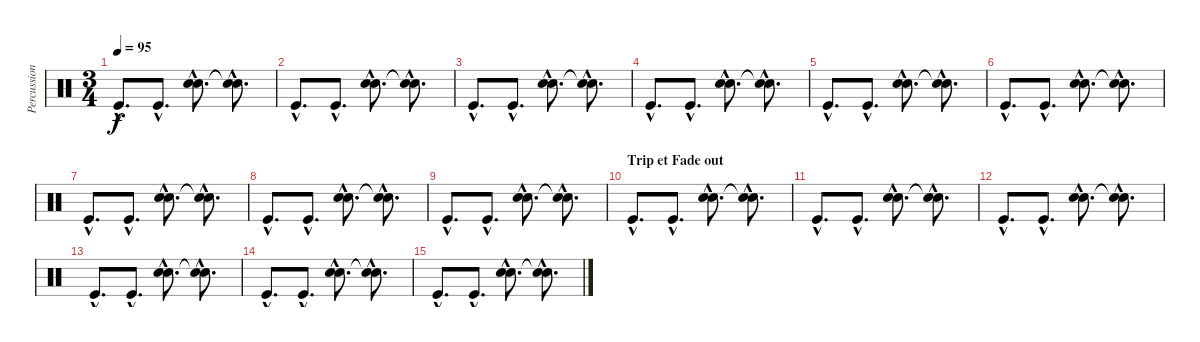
\track ("Percussions " "Percussion") {instrument percussion}
\staff {score}
\articulation defaults
\ts (3 4)
\tempo 95
\clef neutral
\ks c "Kick (hit)"{hac}.8{d dy f volume 14} "Kick (hit)"{hac}.8{d}
("Electric Snare (hit)"{hac} "Hand Clap (hit)"{hac}).8{d} ("Snare (hit)"{hac t} "Snare (hit)"{hac t}).8{d} |
"Kick (hit)"{hac}.8{d volume 16} "Kick (hit)"{hac}.8{d} ("Electric Snare (hit)"{hac} "Hand Clap (hit)"{hac}).8{d} ("Snare (hit)"{hac t} "Snare (hit)"{hac t}).8{d} |
"Kick (hit)"{hac}.8{d volume 14} "Kick (hit)"{hac}.8{d} ("Electric Snare (hit)"{hac} "Hand Clap (hit)"{hac}).8{d} ("Snare (hit)"{hac t} "Snare (hit)"{hac t}).8{d} |
"Kick (hit)"{hac}.8{d volume 16} "Kick (hit)"{hac}.8{d} ("Electric Snare (hit)"{hac} "Hand Clap (hit)"{hac}).8{d} ("Snare (hit)"{hac t} "Snare (hit)"{hac t}).8{d} |
"Kick (hit)"{hac}.8{d volume 14} "Kick (hit)"{hac}.8{d} ("Electric Snare (hit)"{hac} "Hand Clap (hit)"{hac}).8{d} ("Snare (hit)"{hac t} "Snare (hit)"{hac t}).8{d} |
"Kick (hit)"{hac}.8{d volume 16} "Kick (hit)"{hac}.8{d} ("Electric Snare (hit)"{hac} "Hand Clap (hit)"{hac}).8{d} ("Snare (hit)"{hac t} "Snare (hit)"{hac t}).8{d} |
"Kick (hit)"{hac}.8{d volume 14} "Kick (hit)"{hac}.8{d} ("Electric Snare (hit)"{hac} "Hand Clap (hit)"{hac}).8{d} ("Snare (hit)"{hac t} "Snare (hit)"{hac t}).8{d} |
"Kick (hit)"{hac}.8{d volume 16} "Kick (hit)"{hac}.8{d} ("Electric Snare (hit)"{hac} "Hand Clap (hit)"{hac}).8{d} ("Snare (hit)"{hac t} "Snare (hit)"{hac t}).8{d} |
"Kick (hit)"{hac}.8{d volume 14} "Kick (hit)"{hac}.8{d} ("Electric Snare (hit)"{hac} "Hand Clap (hit)"{hac}).8{d} ("Snare (hit)"{hac t} "Snare (hit)"{hac t}).8{d} |
\section ("" "Trip et Fade out")
"Kick (hit)"{hac}.8{d volume 16} "Kick (hit)"{hac}.8{d} ("Electric Snare (hit)"{hac} "Hand Clap (hit)"{hac}).8{d} ("Snare (hit)"{hac t} "Snare (hit)"{hac t}).8{d} |
"Kick (hit)"{hac}.8{d volume 14} "Kick (hit)"{hac}.8{d} ("Electric Snare (hit)"{hac} "Hand Clap (hit)"{hac}).8{d} ("Snare (hit)"{hac t} "Snare (hit)"{hac t}).8{d} |
"Kick (hit)"{hac}.8{d volume 16} "Kick (hit)"{hac}.8{d} ("Electric Snare (hit)"{hac} "Hand Clap (hit)"{hac}).8{d} ("Snare (hit)"{hac t} "Snare (hit)"{hac t}).8{d} |
"Kick (hit)"{hac}.8{d volume 14} "Kick (hit)"{hac}.8{d} ("Electric Snare (hit)"{hac} "Hand Clap (hit)"{hac}).8{d} ("Snare (hit)"{hac t} "Snare (hit)"{hac t}).8{d} |
"Kick (hit)"{hac}.8{d volume 16} "Kick (hit)"{hac}.8{d} ("Electric Snare (hit)"{hac} "Hand Clap (hit)"{hac}).8{d} ("Snare (hit)"{hac t} "Snare (hit)"{hac t}).8{d} |
"Kick (hit)"{hac}.8{d volume 14} "Kick (hit)"{hac}.8{d} ("Electric Snare (hit)"{hac} "Hand Clap (hit)"{hac}).8{d} ("Snare (hit)"{hac t} "Snare (hit)"{hac t}).8{d}
